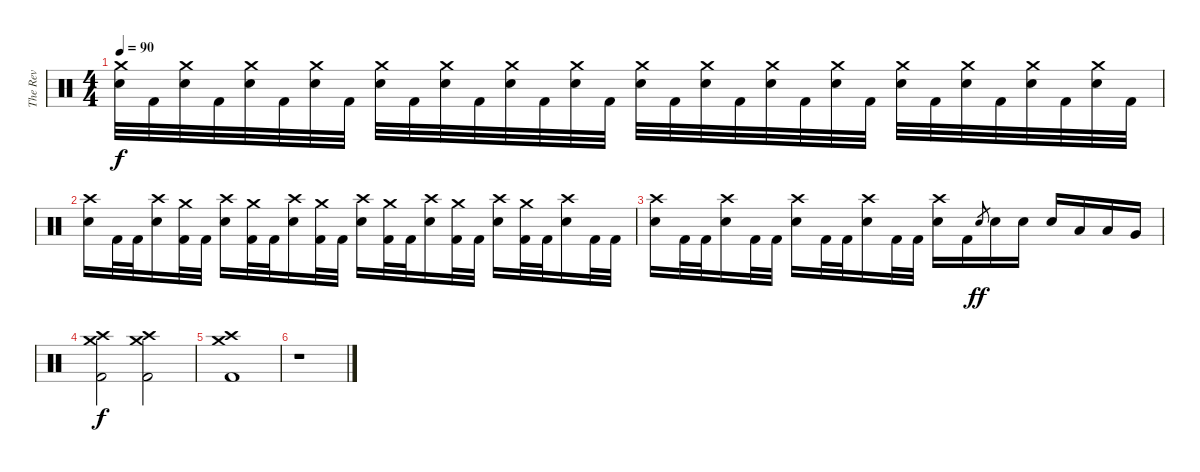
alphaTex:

\track ("The Rev" "The Rev") {instrument percussion}
\staff {score}
\articulation defaults
\ts (4 4)
\tempo 90
\clef neutral
\ks c
("Crash medium (hit)" "Electric Snare (hit)").32{dy f} "Kick (hit) 2".32 ("Crash medium (hit)" "Electric Snare (hit)").32 "Kick (hit) 2".32 ("Crash medium (hit)" "Electric Snare (hit)").32 "Kick (hit) 2".32 ("Crash medium (hit)" "Electric Snare (hit)").32 "Kick (hit) 2".32 ("Crash medium (hit)" "Electric Snare (hit)").32 "Kick (hit) 2".32 ("Crash medium (hit)" "Electric Snare (hit)").32 "Kick (hit) 2".32 ("Crash medium (hit)" "Electric Snare (hit)").32 "Kick (hit) 2".32 ("Crash medium (hit)" "Electric Snare (hit)").32 "Kick (hit) 2".32 ("Crash medium (hit)" "Electric Snare (hit)").32 "Kick (hit) 2".32 ("Crash medium (hit)" "Electric Snare (hit)").32 "Kick (hit) 2".32 ("Crash medium (hit)" "Electric Snare (hit)").32 "Kick (hit) 2".32 ("Crash medium (hit)" "Electric Snare (hit)").32 "Kick (hit) 2".32 ("Crash medium (hit)" "Electric Snare (hit)").32 "Kick (hit) 2".32 ("Crash medium (hit)" "Electric Snare (hit)").32 "Kick (hit) 2".32 ("Crash medium (hit)" "Electric Snare (hit)").32 "Kick (hit) 2".32 ("Crash medium (hit)" "Electric Snare (hit)").32 "Kick (hit) 2".32 |
("Crash high (hit)" "Electric Snare (hit)").16 "Kick (hit) 2".32 "Kick (hit) 2".32 ("Crash high (hit)" "Electric Snare (hit)").16 ("Crash medium (hit)" "Kick (hit) 2").32 "Kick (hit) 2".32 ("Crash high (hit)" "Electric Snare (hit)").16 ("Crash medium (hit)" "Kick (hit) 2").32 "Kick (hit) 2".32 ("Crash high (hit)" "Electric Snare (hit)").16 ("Crash medium (hit)" "Kick (hit) 2").32 "Kick (hit) 2".32 ("Crash high (hit)" "Electric Snare (hit)").16 ("Crash medium (hit)" "Kick (hit) 2").32 "Kick (hit) 2".32 ("Crash high (hit)" "Electric Snare (hit)").16 ("Crash medium (hit)" "Kick (hit) 2").32 "Kick (hit) 2".32 ("Crash high (hit)" "Electric Snare (hit)").16 ("Crash medium (hit)" "Kick (hit) 2").32 "Kick (hit) 2".32 ("Crash high (hit)" "Electric Snare (hit)").16 "Kick (hit) 2".32 "Kick (hit) 2".32 |
("Crash high (hit)" "Electric Snare (hit)").16 "Kick (hit) 2".32 "Kick (hit) 2".32 ("Crash high (hit)" "Electric Snare (hit)").16 "Kick (hit) 2".32 "Kick (hit) 2".32 ("Crash high (hit)" "Electric Snare (hit)").16 "Kick (hit) 2".32 "Kick (hit) 2".32 ("Crash high (hit)" "Electric Snare (hit)").16 "Kick (hit) 2".32 "Kick (hit) 2".32 ("Crash high (hit)" "Electric Snare (hit)").16 "Kick (hit) 2".16 "Electric Snare (hit)".8{gr dy ff} "Electric Snare (hit)".16 "Electric Snare (hit)".16 "Electric Snare (hit)".16 "Low Tom (hit)".16 "Low Tom (hit)".16 "Very Low Tom (hit)".16 |
("Crash medium (hit)" "Crash high (hit)" "Kick (hit) 2").2{dy f} ("Crash medium (hit)" "Crash high (hit)" "Kick (hit) 2").2 |
("Crash medium (hit)" "Crash high (hit)" "Kick (hit) 2").1 |
r.1
